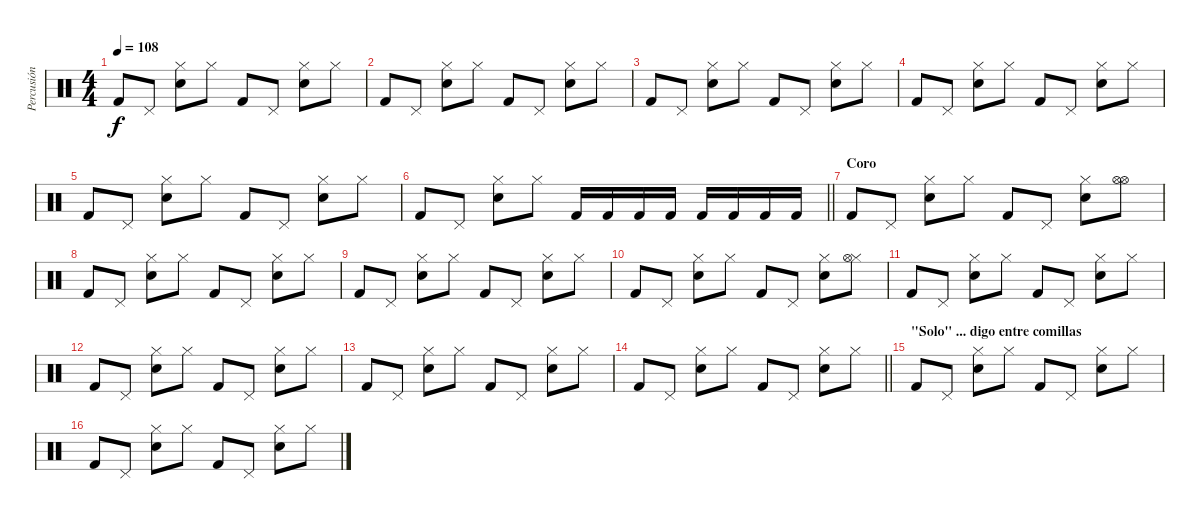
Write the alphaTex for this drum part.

\track ("Percusión" "Percusión") {instrument percussion}
\staff {score}
\articulation defaults
\ts (4 4)
\tempo 108
\clef neutral
\ks c "Kick (hit) 2".8{dy f} "Pedal Hi-Hat (hit)".8
("Electric Snare (hit)" "Hi-Hat (closed)").8 "Hi-Hat (closed)".8 "Kick (hit) 2".8 "Pedal Hi-Hat (hit)".8 ("Electric Snare (hit)" "Hi-Hat (closed)").8 "Hi-Hat (closed)".8 |
"Kick (hit) 2".8 "Pedal Hi-Hat (hit)".8 ("Electric Snare (hit)" "Hi-Hat (closed)").8 "Hi-Hat (closed)".8 "Kick (hit) 2".8 "Pedal Hi-Hat (hit)".8 ("Electric Snare (hit)" "Hi-Hat (closed)").8 "Hi-Hat (closed)".8 |
"Kick (hit) 2".8 "Pedal Hi-Hat (hit)".8 ("Electric Snare (hit)" "Hi-Hat (closed)").8 "Hi-Hat (closed)".8 "Kick (hit) 2".8 "Pedal Hi-Hat (hit)".8 ("Electric Snare (hit)" "Hi-Hat (closed)").8 "Hi-Hat (closed)".8 |
"Kick (hit) 2".8 "Pedal Hi-Hat (hit)".8 ("Electric Snare (hit)" "Hi-Hat (closed)").8 "Hi-Hat (closed)".8 "Kick (hit) 2".8 "Pedal Hi-Hat (hit)".8 ("Electric Snare (hit)" "Hi-Hat (closed)").8 "Hi-Hat (closed)".8 |
"Kick (hit) 2".8 "Pedal Hi-Hat (hit)".8 ("Electric Snare (hit)" "Hi-Hat (closed)").8 "Hi-Hat (closed)".8 "Kick (hit) 2".8 "Pedal Hi-Hat (hit)".8 ("Electric Snare (hit)" "Hi-Hat (closed)").8 "Hi-Hat (closed)".8 |
\barLineRight lightlight "Kick (hit) 2".8 "Pedal Hi-Hat (hit)".8
("Electric Snare (hit)" "Hi-Hat (closed)").8 "Hi-Hat (closed)".8 "Kick (hit) 2".16 "Kick (hit) 2".16 "Kick (hit) 2".16 "Kick (hit) 2".16 "Kick (hit) 2".16 "Kick (hit) 2".16 "Kick (hit) 2".16 "Kick (hit) 2".16 |
\section ("" "Coro")
"Kick (hit) 2".8 "Pedal Hi-Hat (hit)".8 ("Electric Snare (hit)" "Hi-Hat (closed)").8 "Hi-Hat (closed)".8 "Kick (hit) 2".8 "Pedal Hi-Hat (hit)".8 ("Electric Snare (hit)" "Hi-Hat (closed)").8 ("Hi-Hat (open)" "Hi-Hat (open)").8 |
"Kick (hit) 2".8 "Pedal Hi-Hat (hit)".8 ("Electric Snare (hit)" "Hi-Hat (closed)").8 "Hi-Hat (closed)".8 "Kick (hit) 2".8 "Pedal Hi-Hat (hit)".8 ("Electric Snare (hit)" "Hi-Hat (closed)").8 "Hi-Hat (closed)".8 |
"Kick (hit) 2".8 "Pedal Hi-Hat (hit)".8 ("Electric Snare (hit)" "Hi-Hat (closed)").8 "Hi-Hat (closed)".8 "Kick (hit) 2".8 "Pedal Hi-Hat (hit)".8 ("Electric Snare (hit)" "Hi-Hat (closed)").8 "Hi-Hat (closed)".8 |
"Kick (hit) 2".8 "Pedal Hi-Hat (hit)".8 ("Electric Snare (hit)" "Hi-Hat (closed)").8 "Hi-Hat (closed)".8 "Kick (hit) 2".8 "Pedal Hi-Hat (hit)".8 ("Electric Snare (hit)" "Hi-Hat (closed)").8 ("Hi-Hat (closed)" "Hi-Hat (open)").8 |
"Kick (hit) 2".8 "Pedal Hi-Hat (hit)".8 ("Electric Snare (hit)" "Hi-Hat (closed)").8 "Hi-Hat (closed)".8 "Kick (hit) 2".8 "Pedal Hi-Hat (hit)".8 ("Electric Snare (hit)" "Hi-Hat (closed)").8 "Hi-Hat (closed)".8 |
"Kick (hit) 2".8 "Pedal Hi-Hat (hit)".8 ("Electric Snare (hit)" "Hi-Hat (closed)").8 "Hi-Hat (closed)".8 "Kick (hit) 2".8 "Pedal Hi-Hat (hit)".8 ("Electric Snare (hit)" "Hi-Hat (closed)").8 "Hi-Hat (closed)".8 |
"Kick (hit) 2".8 "Pedal Hi-Hat (hit)".8 ("Electric Snare (hit)" "Hi-Hat (closed)").8 "Hi-Hat (closed)".8 "Kick (hit) 2".8 "Pedal Hi-Hat (hit)".8 ("Electric Snare (hit)" "Hi-Hat (closed)").8 "Hi-Hat (closed)".8 |
\barLineRight lightlight "Kick (hit) 2".8 "Pedal Hi-Hat (hit)".8
("Electric Snare (hit)" "Hi-Hat (closed)").8 "Hi-Hat (closed)".8 "Kick (hit) 2".8 "Pedal Hi-Hat (hit)".8 ("Electric Snare (hit)" "Hi-Hat (closed)").8 "Hi-Hat (closed)".8 |
\section ("" "\"Solo\" ... digo entre comillas")
"Kick (hit) 2".8 "Pedal Hi-Hat (hit)".8 ("Electric Snare (hit)" "Hi-Hat (closed)").8 "Hi-Hat (closed)".8 "Kick (hit) 2".8 "Pedal Hi-Hat (hit)".8 ("Electric Snare (hit)" "Hi-Hat (closed)").8 "Hi-Hat (closed)".8 |
"Kick (hit) 2".8 "Pedal Hi-Hat (hit)".8 ("Electric Snare (hit)" "Hi-Hat (closed)").8 "Hi-Hat (closed)".8 "Kick (hit) 2".8 "Pedal Hi-Hat (hit)".8 ("Electric Snare (hit)" "Hi-Hat (closed)").8 "Hi-Hat (closed)".8
